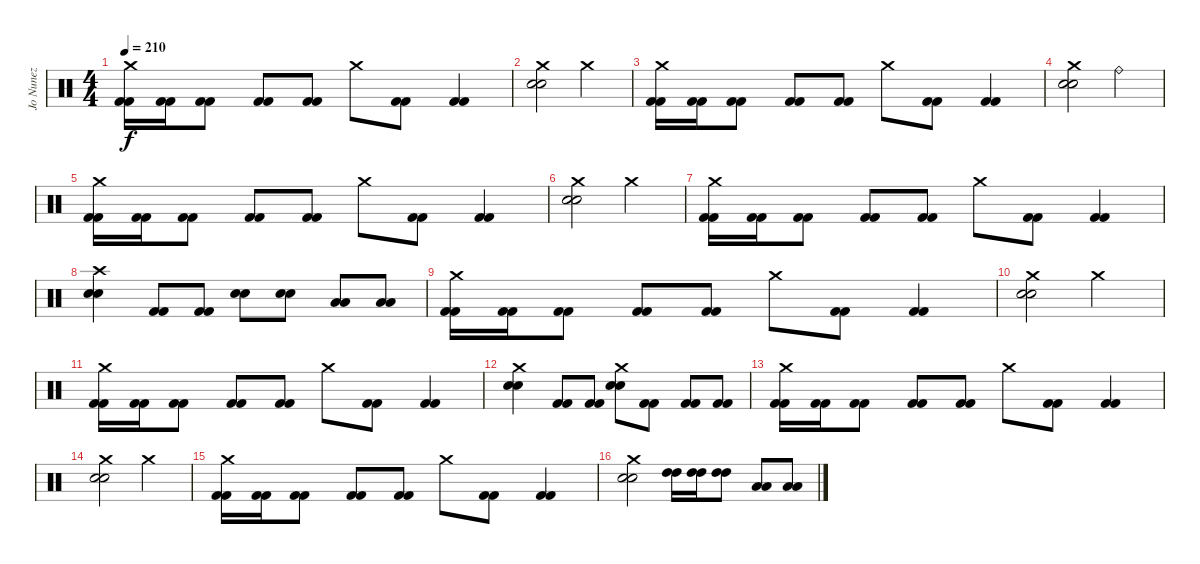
\track ("Jo Nunez" "Jo Nunez") {instrument percussion}
\staff {score}
\articulation defaults
\ts (4 4)
\tempo 210
\clef neutral
\ks c
("Kick (hit) 2" "Kick (hit) 2" "Crash medium (hit)").16{dy f} ("Kick (hit) 2" "Kick (hit) 2").16 ("Kick (hit) 2" "Kick (hit) 2").8 ("Kick (hit) 2" "Kick (hit) 2").8 ("Kick (hit) 2" "Kick (hit) 2").8 "Crash medium (hit)".8 ("Kick (hit) 2" "Kick (hit) 2").8 ("Kick (hit) 2" "Kick (hit) 2").4 |
("Electric Snare (hit)" "Electric Snare (hit)" "Crash medium (hit)").2 "Crash medium (hit)".2 |
("Kick (hit) 2" "Kick (hit) 2" "Crash medium (hit)").16 ("Kick (hit) 2" "Kick (hit) 2").16 ("Kick (hit) 2" "Kick (hit) 2").8 ("Kick (hit) 2" "Kick (hit) 2").8 ("Kick (hit) 2" "Kick (hit) 2").8 "Crash medium (hit)".8 ("Kick (hit) 2" "Kick (hit) 2").8 ("Kick (hit) 2" "Kick (hit) 2").4 |
("Electric Snare (hit)" "Electric Snare (hit)" "Crash medium (hit)").2 "Ride (bell)".2 |
("Kick (hit) 2" "Kick (hit) 2" "Crash medium (hit)").16 ("Kick (hit) 2" "Kick (hit) 2").16 ("Kick (hit) 2" "Kick (hit) 2").8 ("Kick (hit) 2" "Kick (hit) 2").8 ("Kick (hit) 2" "Kick (hit) 2").8 "Crash medium (hit)".8 ("Kick (hit) 2" "Kick (hit) 2").8 ("Kick (hit) 2" "Kick (hit) 2").4 |
("Electric Snare (hit)" "Electric Snare (hit)" "Crash medium (hit)").2 "Crash medium (hit)".2 |
("Kick (hit) 2" "Kick (hit) 2" "Crash medium (hit)").16 ("Kick (hit) 2" "Kick (hit) 2").16 ("Kick (hit) 2" "Kick (hit) 2").8 ("Kick (hit) 2" "Kick (hit) 2").8 ("Kick (hit) 2" "Kick (hit) 2").8 "Crash medium (hit)".8 ("Kick (hit) 2" "Kick (hit) 2").8 ("Kick (hit) 2" "Kick (hit) 2").4 |
("Electric Snare (hit)" "Electric Snare (hit)" "Crash high (hit)").4 ("Kick (hit) 2" "Kick (hit) 2").8 ("Kick (hit) 2" "Kick (hit) 2").8 ("Electric Snare (hit)" "Electric Snare (hit)").8 ("Electric Snare (hit)" "Electric Snare (hit)").8 ("Low Floor Tom (hit)" "Low Floor Tom (hit)").8 ("Low Floor Tom (hit)" "Low Floor Tom (hit)").8 |
("Kick (hit) 2" "Kick (hit) 2" "Crash medium (hit)").16 ("Kick (hit) 2" "Kick (hit) 2").16 ("Kick (hit) 2" "Kick (hit) 2").8 ("Kick (hit) 2" "Kick (hit) 2").8 ("Kick (hit) 2" "Kick (hit) 2").8 "Crash medium (hit)".8 ("Kick (hit) 2" "Kick (hit) 2").8 ("Kick (hit) 2" "Kick (hit) 2").4 |
("Electric Snare (hit)" "Electric Snare (hit)" "Crash medium (hit)").2 "Crash medium (hit)".2 |
("Kick (hit) 2" "Kick (hit) 2" "Crash medium (hit)").16 ("Kick (hit) 2" "Kick (hit) 2").16 ("Kick (hit) 2" "Kick (hit) 2").8 ("Kick (hit) 2" "Kick (hit) 2").8 ("Kick (hit) 2" "Kick (hit) 2").8 "Crash medium (hit)".8 ("Kick (hit) 2" "Kick (hit) 2").8 ("Kick (hit) 2" "Kick (hit) 2").4 |
("Electric Snare (hit)" "Electric Snare (hit)" "Crash medium (hit)").4 ("Kick (hit) 2" "Kick (hit) 2").8 ("Kick (hit) 2" "Kick (hit) 2").8 ("Electric Snare (hit)" "Electric Snare (hit)" "Crash medium (hit)").8 ("Kick (hit) 2" "Kick (hit) 2").8 ("Kick (hit) 2" "Kick (hit) 2").8 ("Kick (hit) 2" "Kick (hit) 2").8 |
("Kick (hit) 2" "Kick (hit) 2" "Crash medium (hit)").16 ("Kick (hit) 2" "Kick (hit) 2").16 ("Kick (hit) 2" "Kick (hit) 2").8 ("Kick (hit) 2" "Kick (hit) 2").8 ("Kick (hit) 2" "Kick (hit) 2").8 "Crash medium (hit)".8 ("Kick (hit) 2" "Kick (hit) 2").8 ("Kick (hit) 2" "Kick (hit) 2").4 |
("Electric Snare (hit)" "Electric Snare (hit)" "Crash medium (hit)").2 "Crash medium (hit)".2 |
("Kick (hit) 2" "Kick (hit) 2" "Crash medium (hit)").16 ("Kick (hit) 2" "Kick (hit) 2").16 ("Kick (hit) 2" "Kick (hit) 2").8 ("Kick (hit) 2" "Kick (hit) 2").8 ("Kick (hit) 2" "Kick (hit) 2").8 "Crash medium (hit)".8 ("Kick (hit) 2" "Kick (hit) 2").8 ("Kick (hit) 2" "Kick (hit) 2").4 |
("Electric Snare (hit)" "Electric Snare (hit)" "Crash medium (hit)").2 ("High Tom (hit)" "High Tom (hit)").16 ("High Tom (hit)" "High Tom (hit)").16 ("High Tom (hit)" "High Tom (hit)").8 ("Low Tom (hit)" "Low Tom (hit)").8 ("Low Tom (hit)" "Low Tom (hit)").8
